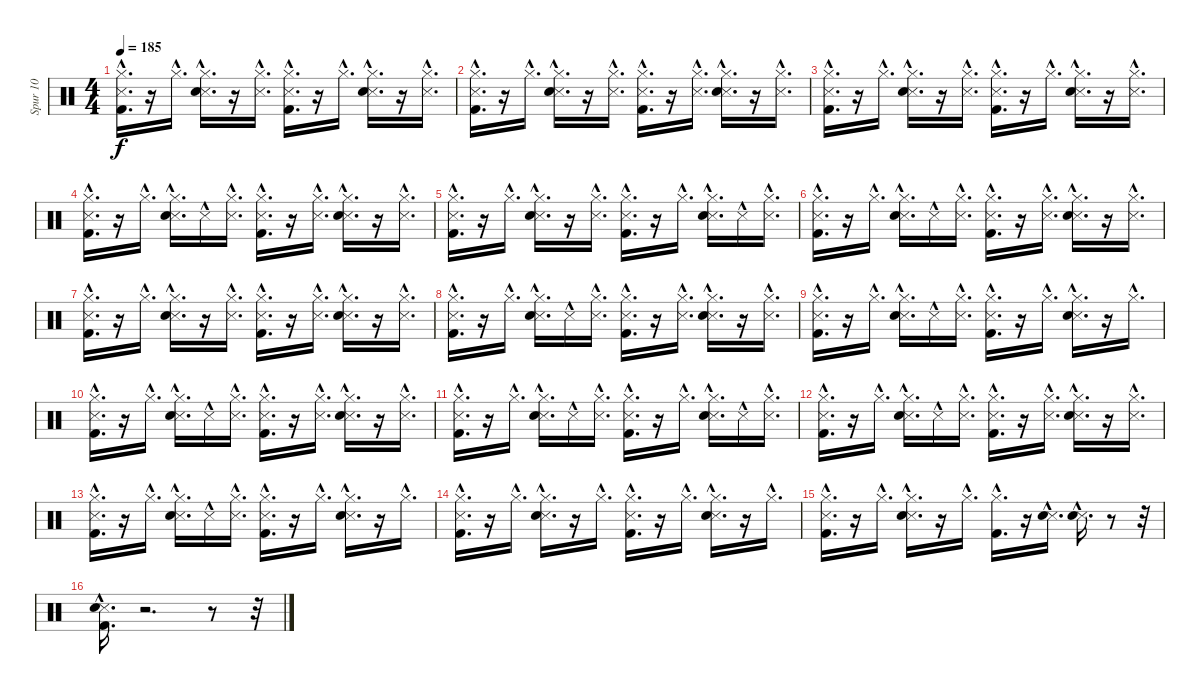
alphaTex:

\track ("Spur 10" "Spur 10") {instrument percussion}
\staff {score}
\articulation defaults
\ts (4 4)
\tempo 185
\clef neutral
\ks c
("Metronome (hit)"{hac} "Hi-Hat (closed)"{hac} "Kick (hit) 2"{hac}).16{d dy f} r.16 "Hi-Hat (closed)"{hac}.16{d} ("Metronome (hit)"{hac} "Hi-Hat (closed)"{hac} "Snare (hit) 2"{hac}).16{d} r.16 ("Metronome (hit)"{hac} "Hi-Hat (closed)"{hac}).16{d} ("Metronome (hit)"{hac} "Hi-Hat (closed)"{hac} "Kick (hit) 2"{hac}).16{d} r.16 "Hi-Hat (closed)"{hac}.16{d} ("Metronome (hit)"{hac} "Hi-Hat (closed)"{hac} "Snare (hit) 2"{hac}).16{d} r.16 ("Metronome (hit)"{hac} "Hi-Hat (closed)"{hac}).16{d} |
("Metronome (hit)"{hac} "Kick (hit) 2"{hac} "Hi-Hat (closed)"{hac}).16{d} r.16 "Hi-Hat (closed)"{hac}.16{d} ("Metronome (hit)"{hac} "Snare (hit) 2"{hac} "Hi-Hat (closed)"{hac}).16{d} r.16 ("Metronome (hit)"{hac} "Hi-Hat (closed)"{hac}).16{d} ("Metronome (hit)"{hac} "Kick (hit) 2"{hac} "Hi-Hat (closed)"{hac}).16{d} r.16 ("Metronome (hit)"{hac} "Hi-Hat (closed)"{hac}).16{d} ("Metronome (hit)"{hac} "Snare (hit) 2"{hac} "Hi-Hat (closed)"{hac}).16{d} r.16 ("Metronome (hit)"{hac} "Hi-Hat (closed)"{hac}).16{d} |
("Metronome (hit)"{hac} "Kick (hit) 2"{hac} "Hi-Hat (closed)"{hac}).16{d} r.16 "Hi-Hat (closed)"{hac}.16{d} ("Metronome (hit)"{hac} "Snare (hit) 2"{hac} "Hi-Hat (closed)"{hac}).16{d} r.16 ("Metronome (hit)"{hac} "Hi-Hat (closed)"{hac}).16{d} ("Metronome (hit)"{hac} "Kick (hit) 2"{hac} "Hi-Hat (closed)"{hac}).16{d} r.16 "Hi-Hat (closed)"{hac}.16{d} ("Metronome (hit)"{hac} "Snare (hit) 2"{hac} "Hi-Hat (closed)"{hac}).16{d} r.16 ("Metronome (hit)"{hac} "Hi-Hat (closed)"{hac}).16{d} |
("Metronome (hit)"{hac} "Kick (hit) 2"{hac} "Hi-Hat (closed)"{hac}).16{d} r.16 "Hi-Hat (closed)"{hac}.16{d} ("Metronome (hit)"{hac} "Snare (hit) 2"{hac} "Hi-Hat (closed)"{hac}).16{d} "Metronome (hit)"{hac}.16 ("Metronome (hit)"{hac} "Hi-Hat (closed)"{hac}).16{d} ("Metronome (hit)"{hac} "Kick (hit) 2"{hac} "Hi-Hat (closed)"{hac}).16{d} r.16 ("Metronome (hit)"{hac} "Hi-Hat (closed)"{hac}).16{d} ("Metronome (hit)"{hac} "Snare (hit) 2"{hac} "Hi-Hat (closed)"{hac}).16{d} r.16 ("Metronome (hit)"{hac} "Hi-Hat (closed)"{hac}).16{d} |
("Metronome (hit)"{hac} "Hi-Hat (closed)"{hac} "Kick (hit) 2"{hac}).16{d} r.16 "Hi-Hat (closed)"{hac}.16{d} ("Metronome (hit)"{hac} "Hi-Hat (closed)"{hac} "Snare (hit) 2"{hac}).16{d} r.16 ("Metronome (hit)"{hac} "Hi-Hat (closed)"{hac}).16{d} ("Metronome (hit)"{hac} "Hi-Hat (closed)"{hac} "Kick (hit) 2"{hac}).16{d} r.16 "Hi-Hat (closed)"{hac}.16{d} ("Metronome (hit)"{hac} "Hi-Hat (closed)"{hac} "Snare (hit) 2"{hac}).16{d} "Metronome (hit)"{hac}.16 ("Metronome (hit)"{hac} "Hi-Hat (closed)"{hac}).16{d} |
("Metronome (hit)"{hac} "Kick (hit) 2"{hac} "Hi-Hat (closed)"{hac}).16{d} r.16 "Hi-Hat (closed)"{hac}.16{d} ("Metronome (hit)"{hac} "Snare (hit) 2"{hac} "Hi-Hat (closed)"{hac}).16{d} "Metronome (hit)"{hac}.16 ("Metronome (hit)"{hac} "Hi-Hat (closed)"{hac}).16{d} ("Metronome (hit)"{hac} "Kick (hit) 2"{hac} "Hi-Hat (closed)"{hac}).16{d} r.16 ("Metronome (hit)"{hac} "Hi-Hat (closed)"{hac}).16{d} ("Metronome (hit)"{hac} "Snare (hit) 2"{hac} "Hi-Hat (closed)"{hac}).16{d} r.16 ("Metronome (hit)"{hac} "Hi-Hat (closed)"{hac}).16{d} |
("Metronome (hit)"{hac} "Kick (hit) 2"{hac} "Hi-Hat (closed)"{hac}).16{d} r.16 "Hi-Hat (closed)"{hac}.16{d} ("Metronome (hit)"{hac} "Snare (hit) 2"{hac} "Hi-Hat (closed)"{hac}).16{d} r.16 ("Metronome (hit)"{hac} "Hi-Hat (closed)"{hac}).16{d} ("Metronome (hit)"{hac} "Kick (hit) 2"{hac} "Hi-Hat (closed)"{hac}).16{d} r.16 ("Metronome (hit)"{hac} "Hi-Hat (closed)"{hac}).16{d} ("Metronome (hit)"{hac} "Snare (hit) 2"{hac} "Hi-Hat (closed)"{hac}).16{d} r.16 ("Metronome (hit)"{hac} "Hi-Hat (closed)"{hac}).16{d} |
("Metronome (hit)"{hac} "Kick (hit) 2"{hac} "Hi-Hat (closed)"{hac}).16{d} r.16 "Hi-Hat (closed)"{hac}.16{d} ("Metronome (hit)"{hac} "Snare (hit) 2"{hac} "Hi-Hat (closed)"{hac}).16{d} "Metronome (hit)"{hac}.16 ("Metronome (hit)"{hac} "Hi-Hat (closed)"{hac}).16{d} ("Metronome (hit)"{hac} "Kick (hit) 2"{hac} "Hi-Hat (closed)"{hac}).16{d} r.16 ("Metronome (hit)"{hac} "Hi-Hat (closed)"{hac}).16{d} ("Metronome (hit)"{hac} "Snare (hit) 2"{hac} "Hi-Hat (closed)"{hac}).16{d} r.16 ("Metronome (hit)"{hac} "Hi-Hat (closed)"{hac}).16{d} |
("Metronome (hit)"{hac} "Hi-Hat (closed)"{hac} "Kick (hit) 2"{hac}).16{d} r.16 "Hi-Hat (closed)"{hac}.16{d} ("Metronome (hit)"{hac} "Hi-Hat (closed)"{hac} "Snare (hit) 2"{hac}).16{d} "Metronome (hit)"{hac}.16 ("Metronome (hit)"{hac} "Hi-Hat (closed)"{hac}).16{d} ("Metronome (hit)"{hac} "Hi-Hat (closed)"{hac} "Kick (hit) 2"{hac}).16{d} r.16 "Hi-Hat (closed)"{hac}.16{d} ("Metronome (hit)"{hac} "Hi-Hat (closed)"{hac} "Snare (hit) 2"{hac}).16{d} r.16 "Hi-Hat (closed)"{hac}.16{d} |
("Metronome (hit)"{hac} "Kick (hit) 2"{hac} "Hi-Hat (closed)"{hac}).16{d} r.16 "Hi-Hat (closed)"{hac}.16{d} ("Metronome (hit)"{hac} "Snare (hit) 2"{hac} "Hi-Hat (closed)"{hac}).16{d} "Metronome (hit)"{hac}.16 ("Metronome (hit)"{hac} "Hi-Hat (closed)"{hac}).16{d} ("Metronome (hit)"{hac} "Kick (hit) 2"{hac} "Hi-Hat (closed)"{hac}).16{d} r.16 ("Metronome (hit)"{hac} "Hi-Hat (closed)"{hac}).16{d} ("Metronome (hit)"{hac} "Snare (hit) 2"{hac} "Hi-Hat (closed)"{hac}).16{d} r.16 ("Metronome (hit)"{hac} "Hi-Hat (closed)"{hac}).16{d} |
("Metronome (hit)"{hac} "Kick (hit) 2"{hac} "Hi-Hat (closed)"{hac}).16{d} r.16 "Hi-Hat (closed)"{hac}.16{d} ("Metronome (hit)"{hac} "Snare (hit) 2"{hac} "Hi-Hat (closed)"{hac}).16{d} "Metronome (hit)"{hac}.16 ("Metronome (hit)"{hac} "Hi-Hat (closed)"{hac}).16{d} ("Metronome (hit)"{hac} "Kick (hit) 2"{hac} "Hi-Hat (closed)"{hac}).16{d} r.16 "Hi-Hat (closed)"{hac}.16{d} ("Metronome (hit)"{hac} "Snare (hit) 2"{hac} "Hi-Hat (closed)"{hac}).16{d} "Metronome (hit)"{hac}.16 ("Metronome (hit)"{hac} "Hi-Hat (closed)"{hac}).16{d} |
("Metronome (hit)"{hac} "Kick (hit) 2"{hac} "Hi-Hat (closed)"{hac}).16{d} r.16 "Hi-Hat (closed)"{hac}.16{d} ("Metronome (hit)"{hac} "Snare (hit) 2"{hac} "Hi-Hat (closed)"{hac}).16{d} "Metronome (hit)"{hac}.16 ("Metronome (hit)"{hac} "Hi-Hat (closed)"{hac}).16{d} ("Metronome (hit)"{hac} "Kick (hit) 2"{hac} "Hi-Hat (closed)"{hac}).16{d} r.16 ("Metronome (hit)"{hac} "Hi-Hat (closed)"{hac}).16{d} ("Metronome (hit)"{hac} "Snare (hit) 2"{hac} "Hi-Hat (closed)"{hac}).16{d} r.16 ("Metronome (hit)"{hac} "Hi-Hat (closed)"{hac}).16{d} |
("Metronome (hit)"{hac} "Hi-Hat (closed)"{hac} "Kick (hit) 2"{hac}).16{d} r.16 "Hi-Hat (closed)"{hac}.16{d} ("Metronome (hit)"{hac} "Hi-Hat (closed)"{hac} "Snare (hit) 2"{hac}).16{d} "Metronome (hit)"{hac}.16 ("Metronome (hit)"{hac} "Hi-Hat (closed)"{hac}).16{d} ("Metronome (hit)"{hac} "Hi-Hat (closed)"{hac} "Kick (hit) 2"{hac}).16{d} r.16 "Hi-Hat (closed)"{hac}.16{d} ("Metronome (hit)"{hac} "Hi-Hat (closed)"{hac} "Snare (hit) 2"{hac}).16{d} r.16 "Hi-Hat (closed)"{hac}.16{d} |
("Metronome (hit)"{hac} "Kick (hit) 2"{hac} "Hi-Hat (closed)"{hac}).16{d} r.16 "Hi-Hat (closed)"{hac}.16{d} ("Metronome (hit)"{hac} "Snare (hit) 2"{hac} "Hi-Hat (closed)"{hac}).16{d} r.16 "Hi-Hat (closed)"{hac}.16{d} ("Metronome (hit)"{hac} "Kick (hit) 2"{hac} "Hi-Hat (closed)"{hac}).16{d} r.16 "Hi-Hat (closed)"{hac}.16{d} ("Metronome (hit)"{hac} "Snare (hit) 2"{hac} "Hi-Hat (closed)"{hac}).16{d} r.16 "Hi-Hat (closed)"{hac}.16{d} |
("Metronome (hit)"{hac} "Kick (hit) 2"{hac} "Hi-Hat (closed)"{hac}).16{d} r.16 "Hi-Hat (closed)"{hac}.16{d} ("Metronome (hit)"{hac} "Snare (hit) 2"{hac} "Hi-Hat (closed)"{hac}).16{d} r.16 "Hi-Hat (closed)"{hac}.16{d} ("Kick (hit) 2"{hac} "Hi-Hat (closed)"{hac}).16{d} r.16 ("Metronome (hit)"{hac} "Snare (hit) 2"{hac}).16{d} ("Metronome (hit)"{hac} "Snare (hit) 2"{hac}).16{d} r.8 r.32 |
("Metronome (hit)"{hac} "Snare (hit) 2"{hac} "Kick (hit) 2"{hac}).16{d} r.2{d} r.8 r.32
